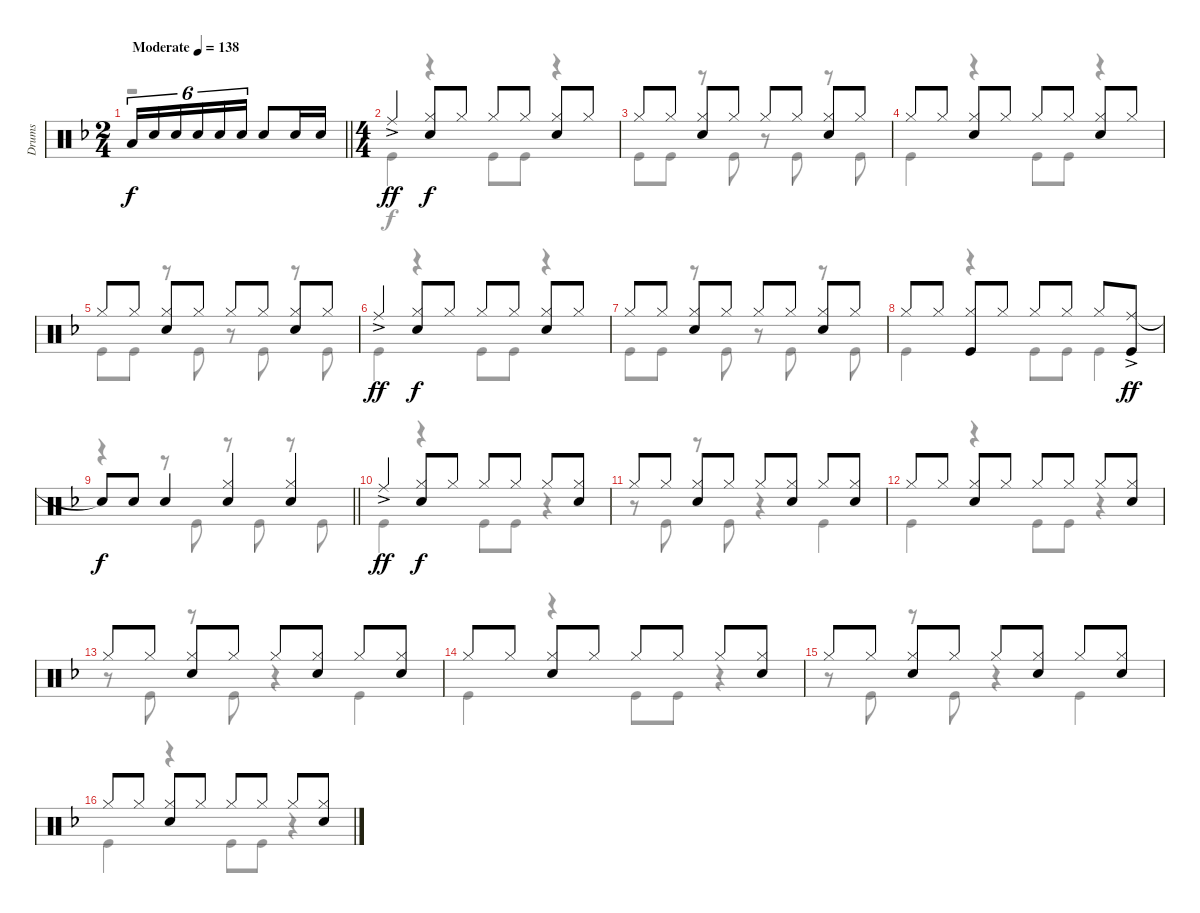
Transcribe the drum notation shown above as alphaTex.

\track ("Drums" "Drums") {instrument percussion}
\staff {score}
\articulation defaults
\voice
\ts (2 4)
\tempo (138 "Moderate")
\clef neutral
\barLineRight lightlight
\ks f "Low Tom (hit)".16{tu (6 4) dy f} "Snare (hit) 2".16{tu (6 4)} "Snare (hit) 2".16{tu (6 4)} "Snare (hit) 2".16{tu (6 4)} "Snare (hit) 2".16{tu (6 4)} "Snare (hit) 2".16{tu (6 4)} "Snare (hit) 2".8 "Snare (hit) 2".16 "Snare (hit) 2".16
|
\ts (4 4)
"Ride (middle)"{ac}.4{dy ff} ("Hi-Hat (closed)" "Snare (hit) 2").8{dy f} "Hi-Hat (closed)".8 "Hi-Hat (closed)".8 "Hi-Hat (closed)".8 ("Hi-Hat (closed)" "Snare (hit) 2").8 "Hi-Hat (closed)".8 |
"Hi-Hat (closed)".8 "Hi-Hat (closed)".8 ("Hi-Hat (closed)" "Snare (hit) 2").8 "Hi-Hat (closed)".8 "Hi-Hat (closed)".8 "Hi-Hat (closed)".8 ("Hi-Hat (closed)" "Snare (hit) 2").8 "Hi-Hat (closed)".8 |
"Hi-Hat (closed)".8 "Hi-Hat (closed)".8 ("Hi-Hat (closed)" "Snare (hit) 2").8 "Hi-Hat (closed)".8 "Hi-Hat (closed)".8 "Hi-Hat (closed)".8 ("Hi-Hat (closed)" "Snare (hit) 2").8 "Hi-Hat (closed)".8 |
"Hi-Hat (closed)".8 "Hi-Hat (closed)".8 ("Hi-Hat (closed)" "Snare (hit) 2").8 "Hi-Hat (closed)".8 "Hi-Hat (closed)".8 "Hi-Hat (closed)".8 ("Hi-Hat (closed)" "Snare (hit) 2").8 "Hi-Hat (closed)".8 |
"Ride (middle)"{ac}.4{dy ff} ("Hi-Hat (closed)" "Snare (hit) 2").8{dy f} "Hi-Hat (closed)".8 "Hi-Hat (closed)".8 "Hi-Hat (closed)".8 ("Hi-Hat (closed)" "Snare (hit) 2").8 "Hi-Hat (closed)".8 |
"Hi-Hat (closed)".8 "Hi-Hat (closed)".8 ("Hi-Hat (closed)" "Snare (hit) 2").8 "Hi-Hat (closed)".8 "Hi-Hat (closed)".8 "Hi-Hat (closed)".8 ("Hi-Hat (closed)" "Snare (hit) 2").8 "Hi-Hat (closed)".8 |
"Hi-Hat (closed)".8 "Hi-Hat (closed)".8 ("Hi-Hat (closed)" "Kick (hit)").8 "Hi-Hat (closed)".8 "Hi-Hat (closed)".8 "Hi-Hat (closed)".8 "Hi-Hat (closed)".8 ("Ride (middle)"{ac} "Kick (hit)").8{dy ff} |
\barLineRight lightlight "Snare (hit)"{t}.8{dy f} "Snare (hit) 2".8 "Snare (hit) 2".4
("Hi-Hat (closed)" "Snare (hit) 2").4 ("Hi-Hat (closed)" "Snare (hit) 2").4 |
"Ride (middle)"{ac}.4{dy ff} ("Hi-Hat (closed)" "Snare (hit) 2").8{dy f} "Hi-Hat (closed)".8 "Hi-Hat (closed)".8 "Hi-Hat (closed)".8 "Hi-Hat (closed)".8 ("Hi-Hat (closed)" "Snare (hit) 2").8 |
"Hi-Hat (closed)".8 "Hi-Hat (closed)".8 ("Hi-Hat (closed)" "Snare (hit) 2").8 "Hi-Hat (closed)".8 "Hi-Hat (closed)".8 ("Hi-Hat (closed)" "Snare (hit) 2").8 "Hi-Hat (closed)".8 ("Hi-Hat (closed)" "Snare (hit) 2").8 |
"Hi-Hat (closed)".8 "Hi-Hat (closed)".8 ("Hi-Hat (closed)" "Snare (hit) 2").8 "Hi-Hat (closed)".8 "Hi-Hat (closed)".8 "Hi-Hat (closed)".8 "Hi-Hat (closed)".8 ("Hi-Hat (closed)" "Snare (hit) 2").8 |
"Hi-Hat (closed)".8 "Hi-Hat (closed)".8 ("Hi-Hat (closed)" "Snare (hit) 2").8 "Hi-Hat (closed)".8 "Hi-Hat (closed)".8 ("Hi-Hat (closed)" "Snare (hit) 2").8 "Hi-Hat (closed)".8 ("Hi-Hat (closed)" "Snare (hit) 2").8 |
"Hi-Hat (closed)".8 "Hi-Hat (closed)".8 ("Hi-Hat (closed)" "Snare (hit) 2").8 "Hi-Hat (closed)".8 "Hi-Hat (closed)".8 "Hi-Hat (closed)".8 "Hi-Hat (closed)".8 ("Hi-Hat (closed)" "Snare (hit) 2").8 |
"Hi-Hat (closed)".8 "Hi-Hat (closed)".8 ("Hi-Hat (closed)" "Snare (hit) 2").8 "Hi-Hat (closed)".8 "Hi-Hat (closed)".8 ("Hi-Hat (closed)" "Snare (hit) 2").8 "Hi-Hat (closed)".8 ("Hi-Hat (closed)" "Snare (hit) 2").8 |
"Hi-Hat (closed)".8 "Hi-Hat (closed)".8 ("Hi-Hat (closed)" "Snare (hit) 2").8 "Hi-Hat (closed)".8 "Hi-Hat (closed)".8 "Hi-Hat (closed)".8 "Hi-Hat (closed)".8 ("Hi-Hat (closed)" "Snare (hit) 2").8
\voice
\clef neutral
\ottava regular
\simile none
\barLineRight lightlight
\ks f
r.2{dy f} |
"Kick (hit)".4 r.4 "Kick (hit)".8 "Kick (hit)".8 r.4 |
"Kick (hit)".8 "Kick (hit)".8 r.8 "Kick (hit)".8 r.8 "Kick (hit)".8 r.8 "Kick (hit)".8 |
"Kick (hit)".4 r.4 "Kick (hit)".8 "Kick (hit)".8 r.4 |
"Kick (hit)".8 "Kick (hit)".8 r.8 "Kick (hit)".8 r.8 "Kick (hit)".8 r.8 "Kick (hit)".8 |
"Kick (hit)".4 r.4 "Kick (hit)".8 "Kick (hit)".8 r.4 |
"Kick (hit)".8 "Kick (hit)".8 r.8 "Kick (hit)".8 r.8 "Kick (hit)".8 r.8 "Kick (hit)".8 |
"Kick (hit)".4 r.4 "Kick (hit)".8 "Kick (hit)".8 "Kick (hit)".4 |
\barLineRight lightlight
r.4 r.8 "Kick (hit)".8 r.8 "Kick (hit)".8 r.8 "Kick (hit)".8 |
"Kick (hit)".4 r.4 "Kick (hit)".8 "Kick (hit)".8 r.4 |
r.8 "Kick (hit)".8 r.8 "Kick (hit)".8 r.4 "Kick (hit)".4 |
"Kick (hit)".4 r.4 "Kick (hit)".8 "Kick (hit)".8 r.4 |
r.8 "Kick (hit)".8 r.8 "Kick (hit)".8 r.4 "Kick (hit)".4 |
"Kick (hit)".4 r.4 "Kick (hit)".8 "Kick (hit)".8 r.4 |
r.8 "Kick (hit)".8 r.8 "Kick (hit)".8 r.4 "Kick (hit)".4 |
"Kick (hit)".4 r.4 "Kick (hit)".8 "Kick (hit)".8 r.4
